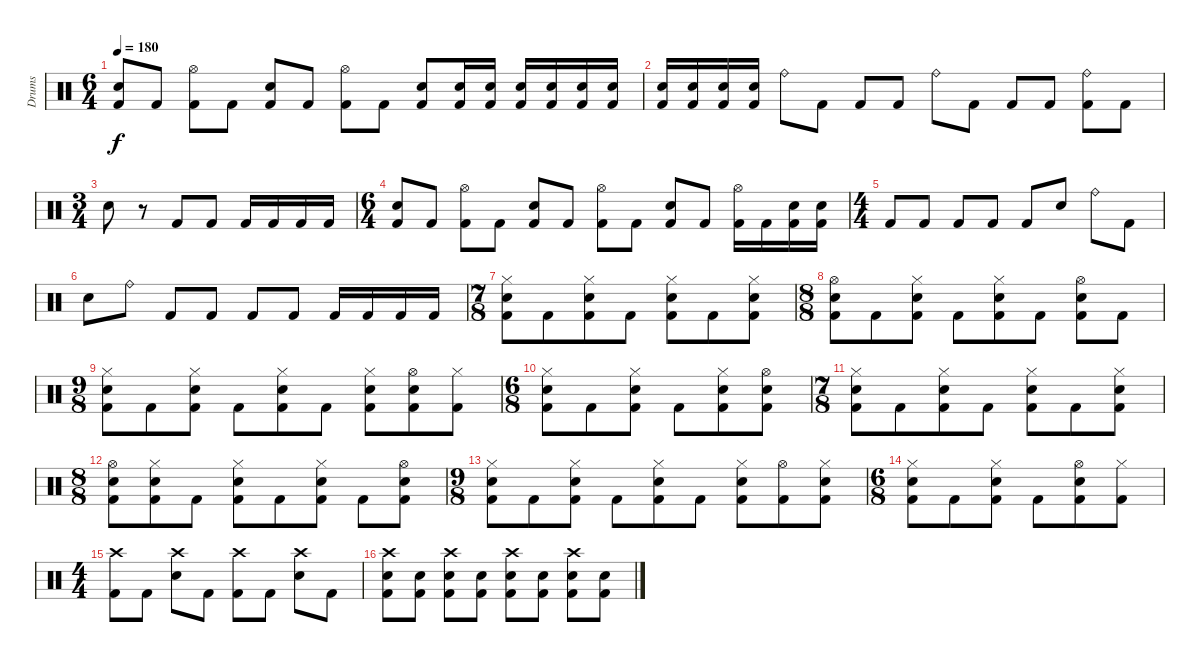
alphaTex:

\track ("Drums" "Drums") {instrument percussion}
\staff {score}
\articulation defaults
\ts (6 4)
\tempo 180
\clef neutral
\ks c
("Electric Snare (hit)" "Kick (hit) 2").8{dy f} "Kick (hit) 2".8 ("Hi-Hat (open)" "Kick (hit) 2").8 "Kick (hit) 2".8 ("Electric Snare (hit)" "Kick (hit) 2").8 "Kick (hit) 2".8 ("Hi-Hat (open)" "Kick (hit) 2").8 "Kick (hit) 2".8 ("Electric Snare (hit)" "Kick (hit) 2").8 ("Electric Snare (hit)" "Kick (hit) 2").16 ("Electric Snare (hit)" "Kick (hit) 2").16 ("Electric Snare (hit)" "Kick (hit) 2").16 ("Electric Snare (hit)" "Kick (hit) 2").16 ("Electric Snare (hit)" "Kick (hit) 2").16 ("Electric Snare (hit)" "Kick (hit) 2").16 |
("Electric Snare (hit)" "Kick (hit) 2").16 ("Electric Snare (hit)" "Kick (hit) 2").16 ("Electric Snare (hit)" "Kick (hit) 2").16 ("Electric Snare (hit)" "Kick (hit) 2").16 "Ride (bell)".8 "Kick (hit) 2".8 "Kick (hit) 2".8 "Kick (hit) 2".8 "Ride (bell)".8 "Kick (hit) 2".8 "Kick (hit) 2".8 "Kick (hit) 2".8 ("Ride (bell)" "Kick (hit) 2").8 "Kick (hit) 2".8 |
\ts (3 4)
"Electric Snare (hit)".8 r.8 "Kick (hit) 2".8 "Kick (hit) 2".8 "Kick (hit) 2".16 "Kick (hit) 2".16 "Kick (hit) 2".16 "Kick (hit) 2".16 |
\ts (6 4)
("Electric Snare (hit)" "Kick (hit) 2").8 "Kick (hit) 2".8 ("Hi-Hat (open)" "Kick (hit) 2").8 "Kick (hit) 2".8 ("Electric Snare (hit)" "Kick (hit) 2").8 "Kick (hit) 2".8 ("Hi-Hat (open)" "Kick (hit) 2").8 "Kick (hit) 2".8 ("Electric Snare (hit)" "Kick (hit) 2").8 "Kick (hit) 2".8 ("Hi-Hat (open)" "Kick (hit) 2").16 "Kick (hit) 2".16 ("Electric Snare (hit)" "Kick (hit) 2").16 ("Electric Snare (hit)" "Kick (hit) 2").16 |
\ts (4 4)
"Kick (hit) 2".8 "Kick (hit) 2".8 "Kick (hit) 2".8 "Kick (hit) 2".8 "Kick (hit) 2".8 "Electric Snare (hit)".8 "Ride (bell)".8 "Kick (hit) 2".8 |
"Electric Snare (hit)".8 "Ride (bell)".8 "Kick (hit) 2".8 "Kick (hit) 2".8 "Kick (hit) 2".8 "Kick (hit) 2".8 "Kick (hit) 2".16 "Kick (hit) 2".16 "Kick (hit) 2".16 "Kick (hit) 2".16 |
\ts (7 8)
("Electric Snare (hit)" "Hi-Hat (closed)" "Kick (hit) 2").8 "Kick (hit) 2".8 ("Electric Snare (hit)" "Hi-Hat (closed)" "Kick (hit) 2").8 "Kick (hit) 2".8 ("Electric Snare (hit)" "Hi-Hat (closed)" "Kick (hit) 2").8 "Kick (hit) 2".8 ("Hi-Hat (closed)" "Electric Snare (hit)" "Kick (hit) 2").8 |
\ts (8 8)
("Hi-Hat (open)" "Electric Snare (hit)" "Kick (hit) 2").8 "Kick (hit) 2".8 ("Hi-Hat (closed)" "Electric Snare (hit)" "Kick (hit) 2").8 "Kick (hit) 2".8 ("Hi-Hat (closed)" "Electric Snare (hit)" "Kick (hit) 2").8 "Kick (hit) 2".8 ("Hi-Hat (open)" "Electric Snare (hit)" "Kick (hit) 2").8 "Kick (hit) 2".8 |
\ts (9 8)
("Hi-Hat (closed)" "Electric Snare (hit)" "Kick (hit) 2").8 "Kick (hit) 2".8 ("Hi-Hat (closed)" "Electric Snare (hit)" "Kick (hit) 2").8 "Kick (hit) 2".8 ("Hi-Hat (closed)" "Electric Snare (hit)" "Kick (hit) 2").8 "Kick (hit) 2".8 ("Hi-Hat (closed)" "Electric Snare (hit)" "Kick (hit) 2").8 ("Hi-Hat (open)" "Electric Snare (hit)" "Kick (hit) 2").8 ("Hi-Hat (closed)" "Kick (hit) 2").8 |
\ts (6 8)
("Hi-Hat (closed)" "Electric Snare (hit)" "Kick (hit) 2").8 "Kick (hit) 2".8 ("Hi-Hat (closed)" "Electric Snare (hit)" "Kick (hit) 2").8 "Kick (hit) 2".8 ("Hi-Hat (closed)" "Electric Snare (hit)" "Kick (hit) 2").8 ("Hi-Hat (open)" "Electric Snare (hit)" "Kick (hit) 2").8 |
\ts (7 8)
("Hi-Hat (closed)" "Electric Snare (hit)" "Kick (hit) 2").8 "Kick (hit) 2".8 ("Hi-Hat (closed)" "Electric Snare (hit)" "Kick (hit) 2").8 "Kick (hit) 2".8 ("Hi-Hat (closed)" "Electric Snare (hit)" "Kick (hit) 2").8 "Kick (hit) 2".8 ("Hi-Hat (closed)" "Electric Snare (hit)" "Kick (hit) 2").8 |
\ts (8 8)
("Hi-Hat (open)" "Electric Snare (hit)" "Kick (hit) 2").8 ("Hi-Hat (closed)" "Electric Snare (hit)" "Kick (hit) 2").8 "Kick (hit) 2".8 ("Hi-Hat (closed)" "Electric Snare (hit)" "Kick (hit) 2").8 "Kick (hit) 2".8 ("Hi-Hat (closed)" "Electric Snare (hit)" "Kick (hit) 2").8 "Kick (hit) 2".8 ("Hi-Hat (open)" "Electric Snare (hit)" "Kick (hit) 2").8 |
\ts (9 8)
("Hi-Hat (closed)" "Electric Snare (hit)" "Kick (hit) 2").8 "Kick (hit) 2".8 ("Hi-Hat (closed)" "Electric Snare (hit)" "Kick (hit) 2").8 "Kick (hit) 2".8 ("Hi-Hat (closed)" "Electric Snare (hit)" "Kick (hit) 2").8 "Kick (hit) 2".8 ("Hi-Hat (closed)" "Electric Snare (hit)" "Kick (hit) 2").8 ("Hi-Hat (open)" "Kick (hit) 2").8 ("Hi-Hat (closed)" "Electric Snare (hit)" "Kick (hit) 2").8 |
\ts (6 8)
("Hi-Hat (closed)" "Electric Snare (hit)" "Kick (hit) 2").8 "Kick (hit) 2".8 ("Hi-Hat (closed)" "Electric Snare (hit)" "Kick (hit) 2").8 "Kick (hit) 2".8 ("Hi-Hat (open)" "Electric Snare (hit)" "Kick (hit) 2").8 ("Hi-Hat (closed)" "Kick (hit) 2").8 |
\ts (4 4)
("Crash high (hit)" "Kick (hit) 2").8 "Kick (hit) 2".8 ("Crash high (hit)" "Electric Snare (hit)").8 "Kick (hit) 2".8 ("Crash high (hit)" "Kick (hit) 2").8 "Kick (hit) 2".8 ("Crash high (hit)" "Electric Snare (hit)").8 "Kick (hit) 2".8 |
("Crash high (hit)" "Electric Snare (hit)" "Kick (hit) 2").8 ("Electric Snare (hit)" "Kick (hit) 2").8 ("Crash high (hit)" "Electric Snare (hit)" "Kick (hit) 2").8 ("Electric Snare (hit)" "Kick (hit) 2").8 ("Crash high (hit)" "Electric Snare (hit)" "Kick (hit) 2").8 ("Electric Snare (hit)" "Kick (hit) 2").8 ("Crash high (hit)" "Electric Snare (hit)" "Kick (hit) 2").8 ("Electric Snare (hit)" "Kick (hit) 2").8
